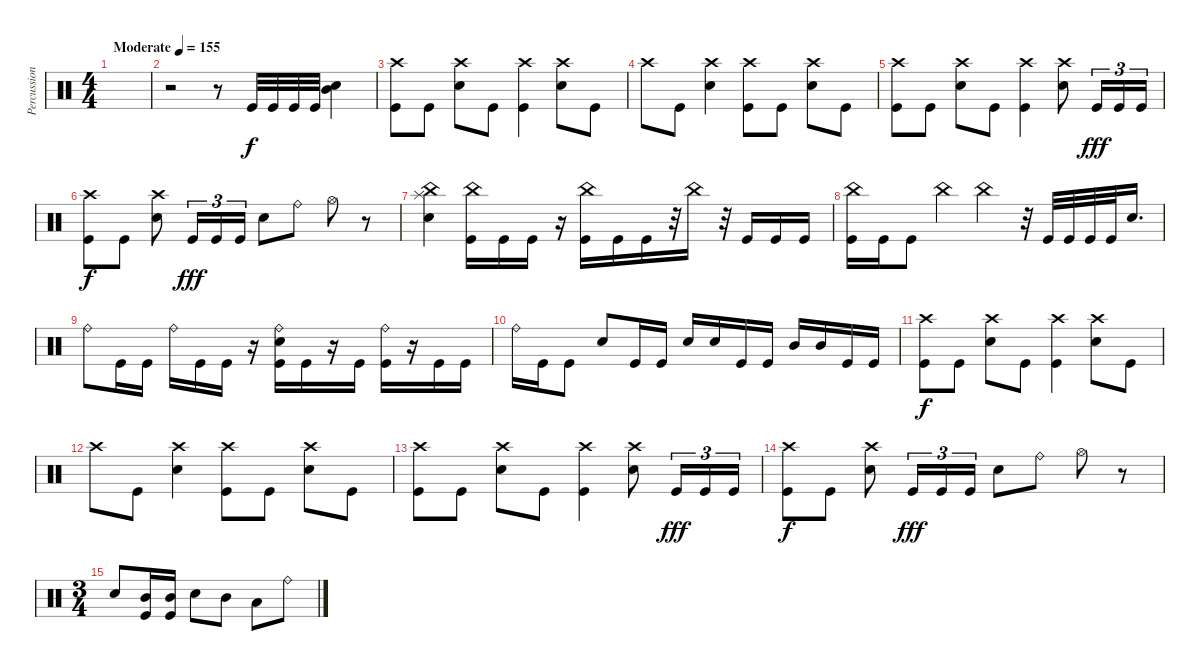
\track ("Percussion" "Percussion") {instrument percussion}
\staff {score}
\articulation defaults
\ts (4 4)
\tempo (155 "Moderate")
\clef neutral
\ks c
|
r.2 r.8 "Kick (hit)".32 "Kick (hit)".32 "Kick (hit)".32 "Kick (hit)".32 ("Snare (hit) 2" "Mid Tom (hit)").4 |
("Crash high (hit)" "Kick (hit)").8 "Kick (hit)".8 ("Crash high (hit)" "Snare (hit) 2").8 "Kick (hit)".8 ("Crash high (hit)" "Kick (hit)").4 ("Crash high (hit)" "Snare (hit) 2").8 "Kick (hit)".8 |
"Crash high (hit)".8 "Kick (hit)".8 ("Crash high (hit)" "Snare (hit) 2").4 ("Crash high (hit)" "Kick (hit)").8 "Kick (hit)".8 ("Crash high (hit)" "Snare (hit) 2").8 "Kick (hit)".8 |
("Crash high (hit)" "Kick (hit)").8 "Kick (hit)".8 ("Crash high (hit)" "Snare (hit) 2").8 "Kick (hit)".8 ("Crash high (hit)" "Kick (hit)").4 ("Crash high (hit)" "Snare (hit) 2").8 "Kick (hit)".16{tu (3 2) dy fff} "Kick (hit)".16{tu (3 2)} "Kick (hit)".16{tu (3 2)} |
("Crash high (hit)" "Kick (hit)").8{dy f} "Kick (hit)".8 ("Crash high (hit)" "Snare (hit) 2").8 "Kick (hit)".16{tu (3 2) dy fff} "Kick (hit)".16{tu (3 2)} "Kick (hit)".16{tu (3 2)} "Snare (hit) 2".8 "Ride (bell)".8 "Hi-Hat (open)".8 r.8 |
("China (hit)" "Splash (hit)" "Snare (hit) 2").4 ("China (hit)" "Kick (hit)").16 "Kick (hit)".16 "Kick (hit)".16 r.16 ("China (hit)" "Kick (hit)").16 "Kick (hit)".16 "Kick (hit)".16 r.32 "China (hit)".16 r.32 "Kick (hit)".16 "Kick (hit)".16 "Kick (hit)".16 |
("China (hit)" "Kick (hit)").16 "Kick (hit)".16 "Kick (hit)".8 "China (hit)".4 "China (hit)".4 r.32 "Kick (hit)".32 "Kick (hit)".32 "Kick (hit)".32 "Kick (hit)".32 "Snare (hit) 2".16{d} |
"Ride (bell)".8 "Kick (hit)".16 "Kick (hit)".16 "Ride (bell)".16 "Kick (hit)".16 "Kick (hit)".16 r.16 ("Ride (bell)" "Snare (hit) 2" "Kick (hit)").16 "Kick (hit)".16 r.16 "Kick (hit)".16 ("Ride (bell)" "Kick (hit)").16 r.16 "Kick (hit)".16 "Kick (hit)".16 |
"Ride (bell)".16 "Kick (hit)".16 "Kick (hit)".8 "Snare (hit) 2".8 "Kick (hit)".16 "Kick (hit)".16 "Snare (hit) 2".16 "Snare (hit) 2".16 "Kick (hit)".16 "Kick (hit)".16 "Mid Tom (hit)".16 "Mid Tom (hit)".16 "Kick (hit)".16 "Kick (hit)".16 |
("Crash high (hit)" "Kick (hit)").8{dy f} "Kick (hit)".8 ("Crash high (hit)" "Snare (hit) 2").8 "Kick (hit)".8 ("Crash high (hit)" "Kick (hit)").4 ("Crash high (hit)" "Snare (hit) 2").8 "Kick (hit)".8 |
"Crash high (hit)".8 "Kick (hit)".8 ("Crash high (hit)" "Snare (hit) 2").4 ("Crash high (hit)" "Kick (hit)").8 "Kick (hit)".8 ("Crash high (hit)" "Snare (hit) 2").8 "Kick (hit)".8 |
("Crash high (hit)" "Kick (hit)").8 "Kick (hit)".8 ("Crash high (hit)" "Snare (hit) 2").8 "Kick (hit)".8 ("Crash high (hit)" "Kick (hit)").4 ("Crash high (hit)" "Snare (hit) 2").8 "Kick (hit)".16{tu (3 2) dy fff} "Kick (hit)".16{tu (3 2)} "Kick (hit)".16{tu (3 2)} |
("Crash high (hit)" "Kick (hit)").8{dy f} "Kick (hit)".8 ("Crash high (hit)" "Snare (hit) 2").8 "Kick (hit)".16{tu (3 2) dy fff} "Kick (hit)".16{tu (3 2)} "Kick (hit)".16{tu (3 2)} "Snare (hit) 2".8 "Ride (bell)".8 "Hi-Hat (open)".8 r.8 |
\ts (3 4)
"Snare (hit) 2".8 ("Mid Tom (hit)" "Kick (hit)").16 ("Mid Tom (hit)" "Kick (hit)").16 "Snare (hit) 2".8 "Mid Tom (hit)".8 "Low Tom (hit)".8 "Ride (bell)".8
